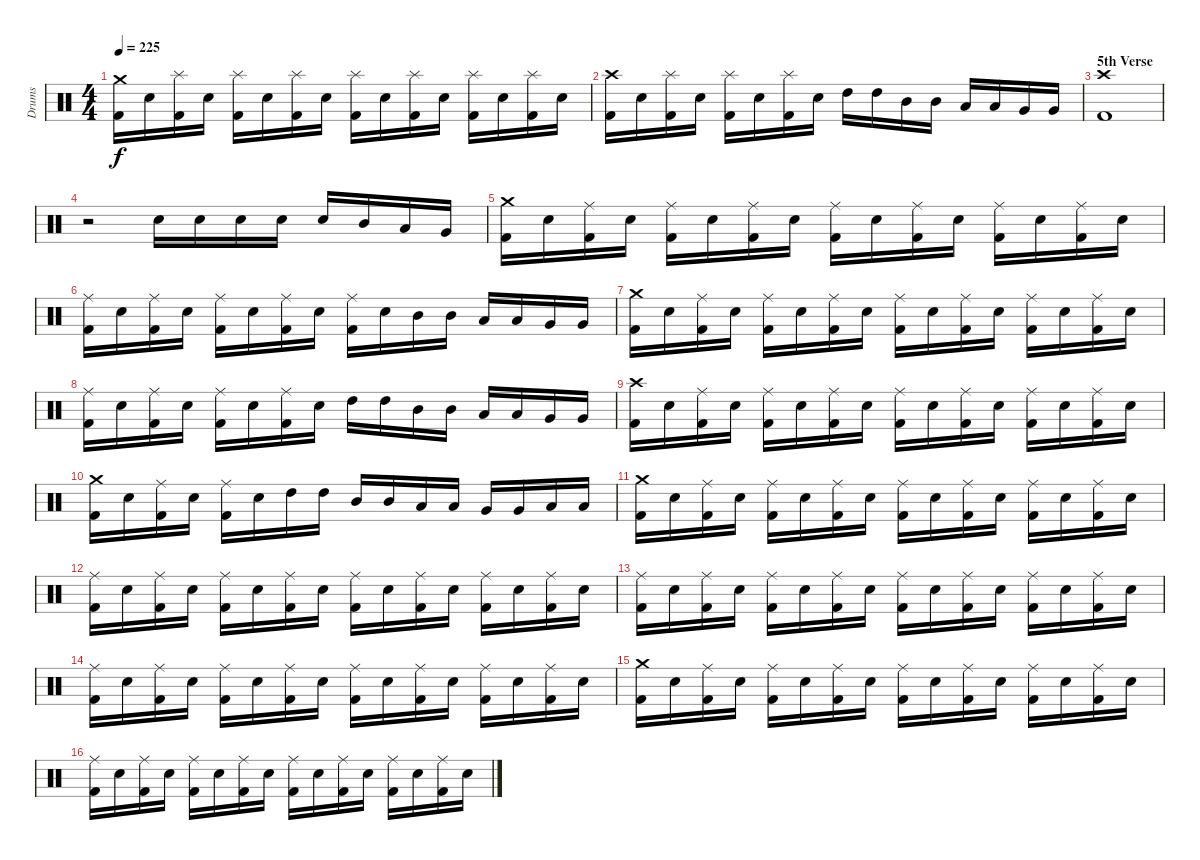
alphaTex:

\track ("Drums" "Drums") {instrument percussion}
\staff {score}
\articulation defaults
\ts (4 4)
\tempo 225
\clef neutral
\ks c
("Kick (hit) 2" "Crash medium (hit)").16{dy f} "Electric Snare (hit)".16 ("Kick (hit) 2" "Splash (hit)").16 "Electric Snare (hit)".16 ("Kick (hit) 2" "Splash (hit)").16 "Electric Snare (hit)".16 ("Kick (hit) 2" "Splash (hit)").16 "Electric Snare (hit)".16 ("Kick (hit) 2" "Splash (hit)").16 "Electric Snare (hit)".16 ("Kick (hit) 2" "Splash (hit)").16 "Electric Snare (hit)".16 ("Kick (hit) 2" "Splash (hit)").16 "Electric Snare (hit)".16 ("Kick (hit) 2" "Splash (hit)").16 "Electric Snare (hit)".16 |
("Kick (hit) 2" "Crash high (hit)").16 "Electric Snare (hit)".16 ("Kick (hit) 2" "Splash (hit)").16 "Electric Snare (hit)".16 ("Kick (hit) 2" "Splash (hit)").16 "Electric Snare (hit)".16 ("Kick (hit) 2" "Splash (hit)").16 "Electric Snare (hit)".16 "High Tom (hit)".16 "High Tom (hit)".16 "Mid Tom (hit)".16 "Mid Tom (hit)".16 "Low Tom (hit)".16 "Low Tom (hit)".16 "Very Low Tom (hit)".16 "Very Low Tom (hit)".16 |
\section ("" "5th Verse")
("Kick (hit) 2" "Crash high (hit)").1 |
r.2 "Electric Snare (hit)".16 "Electric Snare (hit)".16 "Electric Snare (hit)".16 "Electric Snare (hit)".16 "Electric Snare (hit)".16 "Mid Tom (hit)".16 "Low Tom (hit)".16 "Very Low Tom (hit)".16 |
("Kick (hit) 2" "Crash medium (hit)").16 "Electric Snare (hit)".16 ("Kick (hit) 2" "Ride (middle)").16 "Electric Snare (hit)".16 ("Kick (hit) 2" "Ride (middle)").16 "Electric Snare (hit)".16 ("Kick (hit) 2" "Ride (middle)").16 "Electric Snare (hit)".16 ("Kick (hit) 2" "Ride (middle)").16 "Electric Snare (hit)".16 ("Kick (hit) 2" "Ride (middle)").16 "Electric Snare (hit)".16 ("Kick (hit) 2" "Ride (middle)").16 "Electric Snare (hit)".16 ("Kick (hit) 2" "Ride (middle)").16 "Electric Snare (hit)".16 |
("Kick (hit) 2" "Ride (middle)").16 "Electric Snare (hit)".16 ("Kick (hit) 2" "Ride (middle)").16 "Electric Snare (hit)".16 ("Kick (hit) 2" "Ride (middle)").16 "Electric Snare (hit)".16 ("Kick (hit) 2" "Ride (middle)").16 "Electric Snare (hit)".16 ("Kick (hit) 2" "Ride (middle)").16 "Electric Snare (hit)".16 "Mid Tom (hit)".16 "Mid Tom (hit)".16 "Low Tom (hit)".16 "Low Tom (hit)".16 "Very Low Tom (hit)".16 "Very Low Tom (hit)".16 |
("Kick (hit) 2" "Crash medium (hit)").16 "Electric Snare (hit)".16 ("Kick (hit) 2" "Ride (middle)").16 "Electric Snare (hit)".16 ("Kick (hit) 2" "Ride (middle)").16 "Electric Snare (hit)".16 ("Kick (hit) 2" "Ride (middle)").16 "Electric Snare (hit)".16 ("Kick (hit) 2" "Ride (middle)").16 "Electric Snare (hit)".16 ("Kick (hit) 2" "Ride (middle)").16 "Electric Snare (hit)".16 ("Kick (hit) 2" "Ride (middle)").16 "Electric Snare (hit)".16 ("Kick (hit) 2" "Ride (middle)").16 "Electric Snare (hit)".16 |
("Kick (hit) 2" "Ride (middle)").16 "Electric Snare (hit)".16 ("Kick (hit) 2" "Ride (middle)").16 "Electric Snare (hit)".16 ("Kick (hit) 2" "Ride (middle)").16 "Electric Snare (hit)".16 ("Kick (hit) 2" "Ride (middle)").16 "Electric Snare (hit)".16 "High Tom (hit)".16 "High Tom (hit)".16 "Mid Tom (hit)".16 "Mid Tom (hit)".16 "Low Tom (hit)".16 "Low Tom (hit)".16 "Very Low Tom (hit)".16 "Very Low Tom (hit)".16 |
("Kick (hit) 2" "Crash high (hit)").16 "Electric Snare (hit)".16 ("Kick (hit) 2" "Ride (middle)").16 "Electric Snare (hit)".16 ("Kick (hit) 2" "Ride (middle)").16 "Electric Snare (hit)".16 ("Kick (hit) 2" "Ride (middle)").16 "Electric Snare (hit)".16 ("Kick (hit) 2" "Ride (middle)").16 "Electric Snare (hit)".16 ("Kick (hit) 2" "Ride (middle)").16 "Electric Snare (hit)".16 ("Kick (hit) 2" "Ride (middle)").16 "Electric Snare (hit)".16 ("Kick (hit) 2" "Ride (middle)").16 "Electric Snare (hit)".16 |
("Kick (hit) 2" "Crash medium (hit)").16 "Electric Snare (hit)".16 ("Kick (hit) 2" "Ride (middle)").16 "Electric Snare (hit)".16 ("Kick (hit) 2" "Ride (middle)").16 "Electric Snare (hit)".16 "High Tom (hit)".16 "High Tom (hit)".16 "Mid Tom (hit)".16 "Mid Tom (hit)".16 "Low Tom (hit)".16 "Low Tom (hit)".16 "Very Low Tom (hit)".16 "Very Low Tom (hit)".16 "Low Floor Tom (hit)".16 "Low Floor Tom (hit)".16 |
("Kick (hit) 2" "Crash medium (hit)").16 "Electric Snare (hit)".16 ("Kick (hit) 2" "Ride (middle)").16 "Electric Snare (hit)".16 ("Kick (hit) 2" "Ride (middle)").16 "Electric Snare (hit)".16 ("Kick (hit) 2" "Ride (middle)").16 "Electric Snare (hit)".16 ("Kick (hit) 2" "Ride (middle)").16 "Electric Snare (hit)".16 ("Kick (hit) 2" "Ride (middle)").16 "Electric Snare (hit)".16 ("Kick (hit) 2" "Ride (middle)").16 "Electric Snare (hit)".16 ("Kick (hit) 2" "Ride (middle)").16 "Electric Snare (hit)".16 |
("Kick (hit) 2" "Ride (middle)").16 "Electric Snare (hit)".16 ("Kick (hit) 2" "Ride (middle)").16 "Electric Snare (hit)".16 ("Kick (hit) 2" "Ride (middle)").16 "Electric Snare (hit)".16 ("Kick (hit) 2" "Ride (middle)").16 "Electric Snare (hit)".16 ("Kick (hit) 2" "Ride (middle)").16 "Electric Snare (hit)".16 ("Kick (hit) 2" "Ride (middle)").16 "Electric Snare (hit)".16 ("Kick (hit) 2" "Ride (middle)").16 "Electric Snare (hit)".16 ("Kick (hit) 2" "Ride (middle)").16 "Electric Snare (hit)".16 |
("Kick (hit) 2" "Ride (middle)").16 "Electric Snare (hit)".16 ("Kick (hit) 2" "Ride (middle)").16 "Electric Snare (hit)".16 ("Kick (hit) 2" "Ride (middle)").16 "Electric Snare (hit)".16 ("Kick (hit) 2" "Ride (middle)").16 "Electric Snare (hit)".16 ("Kick (hit) 2" "Ride (middle)").16 "Electric Snare (hit)".16 ("Kick (hit) 2" "Ride (middle)").16 "Electric Snare (hit)".16 ("Kick (hit) 2" "Ride (middle)").16 "Electric Snare (hit)".16 ("Kick (hit) 2" "Ride (middle)").16 "Electric Snare (hit)".16 |
("Kick (hit) 2" "Ride (middle)").16 "Electric Snare (hit)".16 ("Kick (hit) 2" "Ride (middle)").16 "Electric Snare (hit)".16 ("Kick (hit) 2" "Ride (middle)").16 "Electric Snare (hit)".16 ("Kick (hit) 2" "Ride (middle)").16 "Electric Snare (hit)".16 ("Kick (hit) 2" "Ride (middle)").16 "Electric Snare (hit)".16 ("Kick (hit) 2" "Ride (middle)").16 "Electric Snare (hit)".16 ("Kick (hit) 2" "Ride (middle)").16 "Electric Snare (hit)".16 ("Kick (hit) 2" "Ride (middle)").16 "Electric Snare (hit)".16 |
("Kick (hit) 2" "Crash medium (hit)").16 "Electric Snare (hit)".16 ("Kick (hit) 2" "Ride (middle)").16 "Electric Snare (hit)".16 ("Kick (hit) 2" "Ride (middle)").16 "Electric Snare (hit)".16 ("Kick (hit) 2" "Ride (middle)").16 "Electric Snare (hit)".16 ("Kick (hit) 2" "Ride (middle)").16 "Electric Snare (hit)".16 ("Kick (hit) 2" "Ride (middle)").16 "Electric Snare (hit)".16 ("Kick (hit) 2" "Ride (middle)").16 "Electric Snare (hit)".16 ("Kick (hit) 2" "Ride (middle)").16 "Electric Snare (hit)".16 |
("Kick (hit) 2" "Ride (middle)").16 "Electric Snare (hit)".16 ("Kick (hit) 2" "Ride (middle)").16 "Electric Snare (hit)".16 ("Kick (hit) 2" "Ride (middle)").16 "Electric Snare (hit)".16 ("Kick (hit) 2" "Ride (middle)").16 "Electric Snare (hit)".16 ("Kick (hit) 2" "Ride (middle)").16 "Electric Snare (hit)".16 ("Kick (hit) 2" "Ride (middle)").16 "Electric Snare (hit)".16 ("Kick (hit) 2" "Ride (middle)").16 "Electric Snare (hit)".16 ("Kick (hit) 2" "Ride (middle)").16 "Electric Snare (hit)".16
